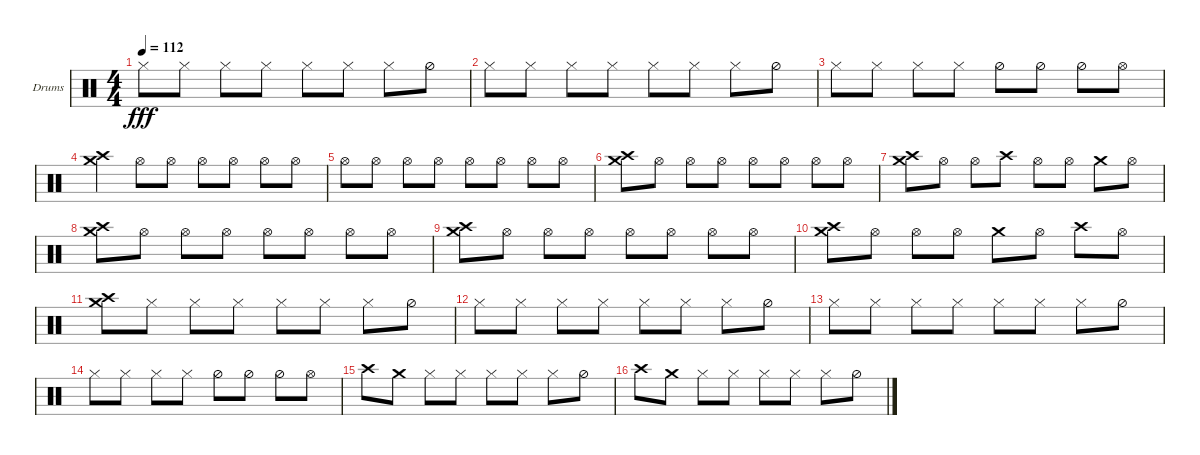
\defaultSystemsLayout 4
\bracketExtendMode groupsimilarinstruments
\firstSystemTrackNameOrientation horizontal
\otherSystemsTrackNameOrientation horizontal
\track ("Helders" "Drums") {instrument percussion}
\staff {score}
\articulation defaults
\ts (4 4)
\tempo 112
\clef neutral
\ks c "Hi-Hat (closed)".8{dy fff} "Hi-Hat (closed)".8 "Hi-Hat (closed)".8 "Hi-Hat (closed)".8 "Hi-Hat (closed)".8 "Hi-Hat (closed)".8 "Hi-Hat (closed)".8 "Hi-Hat (half)".8
|
"Hi-Hat (closed)".8 "Hi-Hat (closed)".8 "Hi-Hat (closed)".8 "Hi-Hat (closed)".8 "Hi-Hat (closed)".8 "Hi-Hat (closed)".8 "Hi-Hat (closed)".8 "Hi-Hat (half)".8 |
"Hi-Hat (closed)".8 "Hi-Hat (closed)".8 "Hi-Hat (closed)".8 "Hi-Hat (closed)".8 "Hi-Hat (half)".8 "Hi-Hat (half)".8 "Hi-Hat (half)".8 "Hi-Hat (open)".8 |
("Crash high (hit)" "Crash medium (hit)").4 "Hi-Hat (open)".8 "Hi-Hat (open)".8 "Hi-Hat (open)".8 "Hi-Hat (open)".8 "Hi-Hat (open)".8 "Hi-Hat (open)".8 |
"Hi-Hat (open)".8 "Hi-Hat (open)".8 "Hi-Hat (open)".8 "Hi-Hat (open)".8 "Hi-Hat (open)".8 "Hi-Hat (open)".8 "Hi-Hat (open)".8 "Hi-Hat (open)".8 |
("Crash high (hit)" "Crash medium (hit)").8 "Hi-Hat (open)".8 "Hi-Hat (open)".8 "Hi-Hat (open)".8 "Hi-Hat (open)".8 "Hi-Hat (open)".8 "Hi-Hat (open)".8 "Hi-Hat (open)".8 |
("Crash high (hit)" "Crash medium (hit)").8 "Hi-Hat (open)".8 "Hi-Hat (open)".8 "Crash high (hit)".8 "Hi-Hat (open)".8 "Hi-Hat (open)".8 "Crash medium (hit)".8 "Hi-Hat (open)".8 |
("Crash medium (hit)" "Crash high (hit)").8 "Hi-Hat (open)".8 "Hi-Hat (open)".8 "Hi-Hat (open)".8 "Hi-Hat (open)".8 "Hi-Hat (open)".8 "Hi-Hat (open)".8 "Hi-Hat (open)".8 |
("Crash high (hit)" "Crash medium (hit)").8 "Hi-Hat (open)".8 "Hi-Hat (open)".8 "Hi-Hat (open)".8 "Hi-Hat (open)".8 "Hi-Hat (open)".8 "Hi-Hat (open)".8 "Hi-Hat (open)".8 |
("Crash high (hit)" "Crash medium (hit)").8 "Hi-Hat (open)".8 "Hi-Hat (open)".8 "Hi-Hat (open)".8 "Crash medium (hit)".8 "Hi-Hat (open)".8 "Crash high (hit)".8 "Hi-Hat (open)".8 |
("Crash high (hit)" "Crash medium (hit)").8 "Hi-Hat (closed)".8 "Hi-Hat (closed)".8 "Hi-Hat (closed)".8 "Hi-Hat (closed)".8 "Hi-Hat (closed)".8 "Hi-Hat (closed)".8 "Hi-Hat (half)".8 |
"Hi-Hat (closed)".8 "Hi-Hat (closed)".8 "Hi-Hat (closed)".8 "Hi-Hat (closed)".8 "Hi-Hat (closed)".8 "Hi-Hat (closed)".8 "Hi-Hat (closed)".8 "Hi-Hat (half)".8 |
"Hi-Hat (closed)".8 "Hi-Hat (closed)".8 "Hi-Hat (closed)".8 "Hi-Hat (closed)".8 "Hi-Hat (closed)".8 "Hi-Hat (closed)".8 "Hi-Hat (closed)".8 "Hi-Hat (half)".8 |
"Hi-Hat (closed)".8 "Hi-Hat (closed)".8 "Hi-Hat (closed)".8 "Hi-Hat (closed)".8 "Hi-Hat (half)".8 "Hi-Hat (half)".8 "Hi-Hat (half)".8 "Hi-Hat (open)".8 |
"Crash high (hit)".8 "Crash medium (hit)".8 "Hi-Hat (closed)".8 "Hi-Hat (closed)".8 "Hi-Hat (closed)".8 "Hi-Hat (closed)".8 "Hi-Hat (closed)".8 "Hi-Hat (half)".8 |
"Crash high (hit)".8 "Crash medium (hit)".8 "Hi-Hat (closed)".8 "Hi-Hat (closed)".8 "Hi-Hat (closed)".8 "Hi-Hat (closed)".8 "Hi-Hat (closed)".8 "Hi-Hat (half)".8
